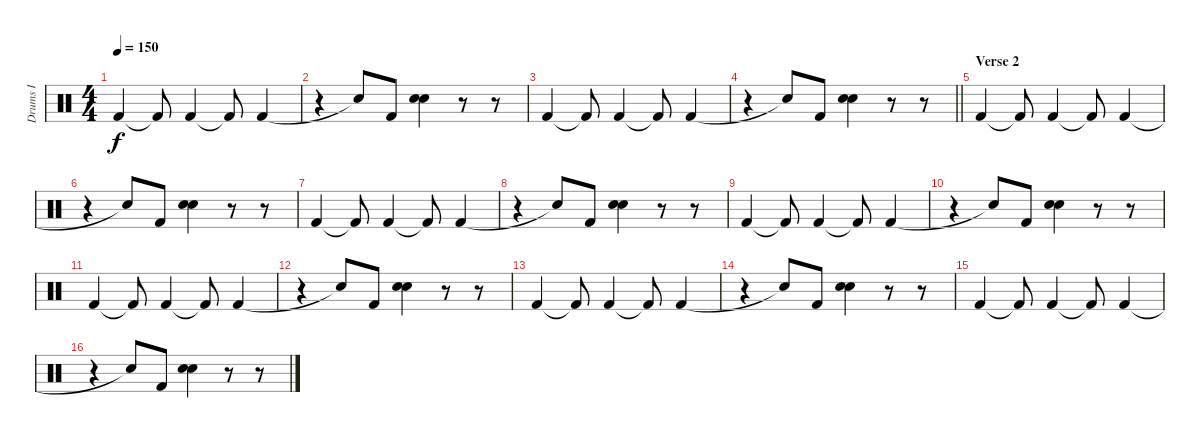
\track ("Drums I" "Drums I") {instrument percussion}
\staff {score}
\articulation defaults
\ts (4 4)
\tempo 150
\clef neutral
\ks c "Kick (hit) 2".4{dy f} "Kick (hit) 2"{t}.8 "Kick (hit) 2".4 "Kick (hit) 2"{t}.8 "Kick (hit) 2".4
|
r.4 "Snare (hit)"{t}.8 "Kick (hit) 2".8 ("Snare (hit) 2" "Electric Snare (hit)").4 r.8 r.8 |
"Kick (hit) 2".4 "Kick (hit) 2"{t}.8 "Kick (hit) 2".4 "Kick (hit) 2"{t}.8 "Kick (hit) 2".4 |
\barLineRight lightlight
r.4 "Snare (hit)"{t}.8 "Kick (hit) 2".8 ("Snare (hit) 2" "Electric Snare (hit)").4 r.8 r.8 |
\section ("" "Verse 2")
"Kick (hit) 2".4 "Kick (hit) 2"{t}.8 "Kick (hit) 2".4 "Kick (hit) 2"{t}.8 "Kick (hit) 2".4 |
r.4 "Snare (hit)"{t}.8 "Kick (hit) 2".8 ("Snare (hit) 2" "Electric Snare (hit)").4 r.8 r.8 |
"Kick (hit) 2".4 "Kick (hit) 2"{t}.8 "Kick (hit) 2".4 "Kick (hit) 2"{t}.8 "Kick (hit) 2".4 |
r.4 "Snare (hit)"{t}.8 "Kick (hit) 2".8 ("Snare (hit) 2" "Electric Snare (hit)").4 r.8 r.8 |
"Kick (hit) 2".4 "Kick (hit) 2"{t}.8 "Kick (hit) 2".4 "Kick (hit) 2"{t}.8 "Kick (hit) 2".4 |
r.4 "Snare (hit)"{t}.8 "Kick (hit) 2".8 ("Snare (hit) 2" "Electric Snare (hit)").4 r.8 r.8 |
"Kick (hit) 2".4 "Kick (hit) 2"{t}.8 "Kick (hit) 2".4 "Kick (hit) 2"{t}.8 "Kick (hit) 2".4 |
r.4 "Snare (hit)"{t}.8 "Kick (hit) 2".8 ("Snare (hit) 2" "Electric Snare (hit)").4 r.8 r.8 |
"Kick (hit) 2".4 "Kick (hit) 2"{t}.8 "Kick (hit) 2".4 "Kick (hit) 2"{t}.8 "Kick (hit) 2".4 |
r.4 "Snare (hit)"{t}.8 "Kick (hit) 2".8 ("Snare (hit) 2" "Electric Snare (hit)").4 r.8 r.8 |
"Kick (hit) 2".4 "Kick (hit) 2"{t}.8 "Kick (hit) 2".4 "Kick (hit) 2"{t}.8 "Kick (hit) 2".4 |
r.4 "Snare (hit)"{t}.8 "Kick (hit) 2".8 ("Snare (hit) 2" "Electric Snare (hit)").4 r.8 r.8
